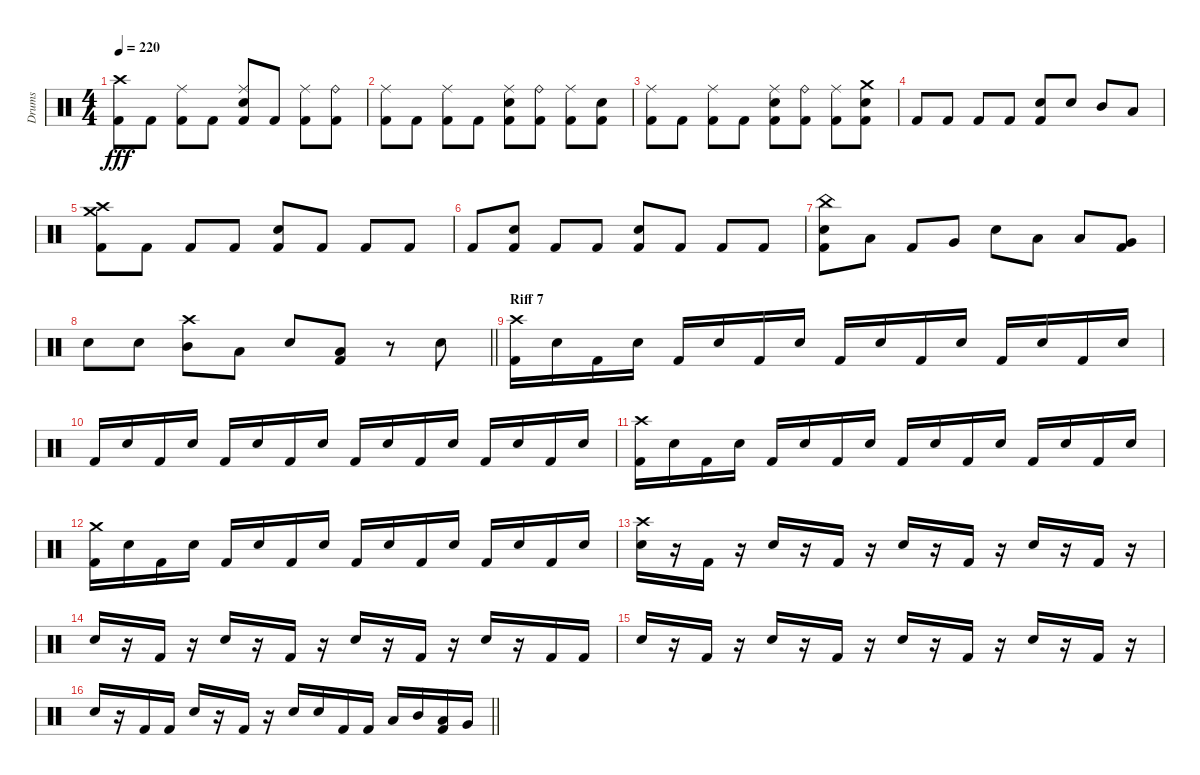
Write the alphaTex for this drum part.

\track ("Drums" "Drums") {instrument percussion}
\staff {score}
\articulation defaults
\ts (4 4)
\tempo 220
\clef neutral
\ks c
("Crash high (hit)" "Kick (hit) 2").8{dy fff} "Kick (hit) 2".8 ("Kick (hit) 2" "Ride (middle)").8 "Kick (hit) 2".8 ("Kick (hit) 2" "Snare (hit) 2" "Ride (middle)").8 "Kick (hit) 2".8 ("Kick (hit) 2" "Ride (middle)").8 ("Kick (hit) 2" "Ride (bell)").8 |
("Kick (hit) 2" "Ride (middle)").8 "Kick (hit) 2".8 ("Kick (hit) 2" "Ride (middle)").8 "Kick (hit) 2".8 ("Kick (hit) 2" "Snare (hit) 2" "Ride (middle)").8 ("Kick (hit) 2" "Ride (bell)").8 ("Kick (hit) 2" "Ride (middle)").8 ("Kick (hit) 2" "Snare (hit) 2").8 |
("Kick (hit) 2" "Ride (middle)").8 "Kick (hit) 2".8 ("Kick (hit) 2" "Ride (middle)").8 "Kick (hit) 2".8 ("Kick (hit) 2" "Snare (hit) 2" "Ride (middle)").8 ("Kick (hit) 2" "Ride (bell)").8 ("Kick (hit) 2" "Ride (middle)").8 ("Crash medium (hit)" "Kick (hit) 2" "Snare (hit) 2").8 |
"Kick (hit) 2".8 "Kick (hit) 2".8 "Kick (hit) 2".8 "Kick (hit) 2".8 ("Kick (hit) 2" "Snare (hit) 2").8 "Snare (hit) 2".8 "Mid Tom (hit)".8 "Low Tom (hit)".8 |
("Crash high (hit)" "Crash medium (hit)" "Kick (hit) 2").8 "Kick (hit) 2".8 "Kick (hit) 2".8 "Kick (hit) 2".8 ("Kick (hit) 2" "Snare (hit) 2").8 "Kick (hit) 2".8 "Kick (hit) 2".8 "Kick (hit) 2".8 |
"Kick (hit) 2".8 ("Kick (hit) 2" "Snare (hit) 2").8 "Kick (hit) 2".8 "Kick (hit) 2".8 ("Kick (hit) 2" "Snare (hit) 2").8 "Kick (hit) 2".8 "Kick (hit) 2".8 "Kick (hit) 2".8 |
("China (hit)" "Kick (hit) 2" "Snare (hit) 2").8 "Low Tom (hit)".8 "Kick (hit) 2".8 "Very Low Tom (hit)".8 "Snare (hit) 2".8 "Low Tom (hit)".8 "Low Floor Tom (hit)".8 ("Kick (hit) 2" "Very Low Tom (hit)").8 |
\barLineRight lightlight "Snare (hit) 2".8 "Snare (hit) 2".8
("Crash high (hit)" "Mid Tom (hit)").8 "Low Tom (hit)".8 "Snare (hit) 2".8 ("Kick (hit) 2" "Low Tom (hit)").8 r.8 "Snare (hit) 2".8 |
\section ("" "Riff 7")
("Crash high (hit)" "Kick (hit) 2").16 "Snare (hit) 2".16 "Kick (hit) 2".16 "Snare (hit) 2".16 "Kick (hit) 2".16 "Snare (hit) 2".16 "Kick (hit) 2".16 "Snare (hit) 2".16 "Kick (hit) 2".16 "Snare (hit) 2".16 "Kick (hit) 2".16 "Snare (hit) 2".16 "Kick (hit) 2".16 "Snare (hit) 2".16 "Kick (hit) 2".16 "Snare (hit) 2".16 |
"Kick (hit) 2".16 "Snare (hit) 2".16 "Kick (hit) 2".16 "Snare (hit) 2".16 "Kick (hit) 2".16 "Snare (hit) 2".16 "Kick (hit) 2".16 "Snare (hit) 2".16 "Kick (hit) 2".16 "Snare (hit) 2".16 "Kick (hit) 2".16 "Snare (hit) 2".16 "Kick (hit) 2".16 "Snare (hit) 2".16 "Kick (hit) 2".16 "Snare (hit) 2".16 |
("Crash high (hit)" "Kick (hit) 2").16 "Snare (hit) 2".16 "Kick (hit) 2".16 "Snare (hit) 2".16 "Kick (hit) 2".16 "Snare (hit) 2".16 "Kick (hit) 2".16 "Snare (hit) 2".16 "Kick (hit) 2".16 "Snare (hit) 2".16 "Kick (hit) 2".16 "Snare (hit) 2".16 "Kick (hit) 2".16 "Snare (hit) 2".16 "Kick (hit) 2".16 "Snare (hit) 2".16 |
("Crash medium (hit)" "Kick (hit) 2").16 "Snare (hit) 2".16 "Kick (hit) 2".16 "Snare (hit) 2".16 "Kick (hit) 2".16 "Snare (hit) 2".16 "Kick (hit) 2".16 "Snare (hit) 2".16 "Kick (hit) 2".16 "Snare (hit) 2".16 "Kick (hit) 2".16 "Snare (hit) 2".16 "Kick (hit) 2".16 "Snare (hit) 2".16 "Kick (hit) 2".16 "Snare (hit) 2".16 |
("Crash high (hit)" "Snare (hit) 2").16 r.16 "Kick (hit) 2".16 r.16 "Snare (hit) 2".16 r.16 "Kick (hit) 2".16 r.16 "Snare (hit) 2".16 r.16 "Kick (hit) 2".16 r.16 "Snare (hit) 2".16 r.16 "Kick (hit) 2".16 r.16 |
"Snare (hit) 2".16 r.16 "Kick (hit) 2".16 r.16 "Snare (hit) 2".16 r.16 "Kick (hit) 2".16 r.16 "Snare (hit) 2".16 r.16 "Kick (hit) 2".16 r.16 "Snare (hit) 2".16 r.16 "Kick (hit) 2".16 "Kick (hit) 2".16 |
"Snare (hit) 2".16 r.16 "Kick (hit) 2".16 r.16 "Snare (hit) 2".16 r.16 "Kick (hit) 2".16 r.16 "Snare (hit) 2".16 r.16 "Kick (hit) 2".16 r.16 "Snare (hit) 2".16 r.16 "Kick (hit) 2".16 r.16 |
\barLineRight lightlight "Snare (hit) 2".16
r.16 "Kick (hit) 2".16 "Kick (hit) 2".16 "Snare (hit) 2".16 r.16 "Kick (hit) 2".16 r.16 "Snare (hit) 2".16 "Snare (hit) 2".16 "Kick (hit) 2".16 "Kick (hit) 2".16 "Low Tom (hit)".16 "Mid Tom (hit)".16 ("Kick (hit) 2" "Low Tom (hit)").16 "Very Low Tom (hit)".16
